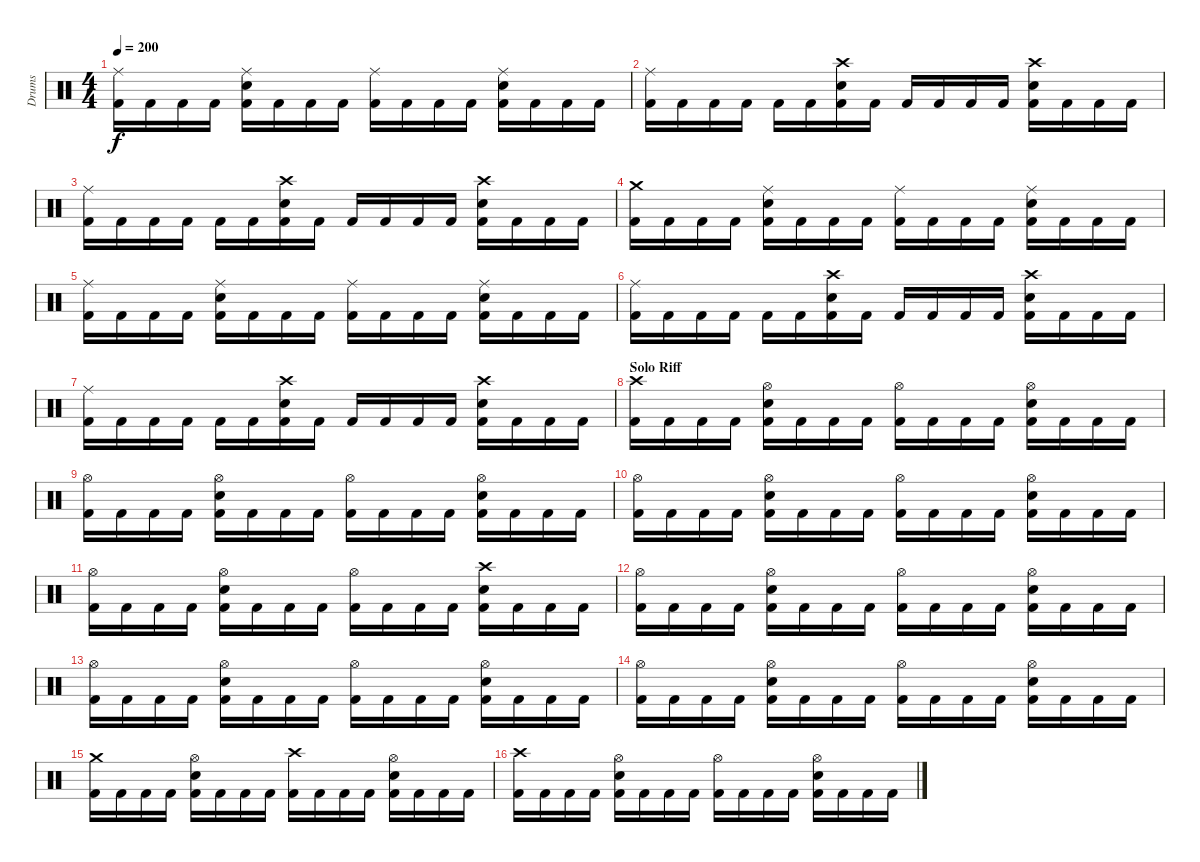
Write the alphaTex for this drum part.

\track ("Drums" "Drums") {instrument percussion}
\staff {score}
\articulation defaults
\ts (4 4)
\tempo 200
\clef neutral
\ks c
("Ride (middle)" "Kick (hit) 2").16{dy f} "Kick (hit) 2".16 "Kick (hit) 2".16 "Kick (hit) 2".16 ("Ride (middle)" "Snare (hit) 2" "Kick (hit) 2").16 "Kick (hit) 2".16 "Kick (hit) 2".16 "Kick (hit) 2".16 ("Ride (middle)" "Kick (hit) 2").16 "Kick (hit) 2".16 "Kick (hit) 2".16 "Kick (hit) 2".16 ("Ride (middle)" "Snare (hit) 2" "Kick (hit) 2").16 "Kick (hit) 2".16 "Kick (hit) 2".16 "Kick (hit) 2".16 |
("Ride (middle)" "Kick (hit) 2").16 "Kick (hit) 2".16 "Kick (hit) 2".16 "Kick (hit) 2".16 "Kick (hit) 2".16 "Kick (hit) 2".16 ("Crash high (hit)" "Snare (hit) 2" "Kick (hit) 2").16 "Kick (hit) 2".16 "Kick (hit) 2".16 "Kick (hit) 2".16 "Kick (hit) 2".16 "Kick (hit) 2".16 ("Crash high (hit)" "Snare (hit) 2" "Kick (hit) 2").16 "Kick (hit) 2".16 "Kick (hit) 2".16 "Kick (hit) 2".16 |
("Ride (middle)" "Kick (hit) 2").16 "Kick (hit) 2".16 "Kick (hit) 2".16 "Kick (hit) 2".16 "Kick (hit) 2".16 "Kick (hit) 2".16 ("Crash high (hit)" "Snare (hit) 2" "Kick (hit) 2").16 "Kick (hit) 2".16 "Kick (hit) 2".16 "Kick (hit) 2".16 "Kick (hit) 2".16 "Kick (hit) 2".16 ("Crash high (hit)" "Snare (hit) 2" "Kick (hit) 2").16 "Kick (hit) 2".16 "Kick (hit) 2".16 "Kick (hit) 2".16 |
("Crash medium (hit)" "Kick (hit) 2").16 "Kick (hit) 2".16 "Kick (hit) 2".16 "Kick (hit) 2".16 ("Ride (middle)" "Snare (hit) 2" "Kick (hit) 2").16 "Kick (hit) 2".16 "Kick (hit) 2".16 "Kick (hit) 2".16 ("Ride (middle)" "Kick (hit) 2").16 "Kick (hit) 2".16 "Kick (hit) 2".16 "Kick (hit) 2".16 ("Ride (middle)" "Snare (hit) 2" "Kick (hit) 2").16 "Kick (hit) 2".16 "Kick (hit) 2".16 "Kick (hit) 2".16 |
("Ride (middle)" "Kick (hit) 2").16 "Kick (hit) 2".16 "Kick (hit) 2".16 "Kick (hit) 2".16 ("Ride (middle)" "Snare (hit) 2" "Kick (hit) 2").16 "Kick (hit) 2".16 "Kick (hit) 2".16 "Kick (hit) 2".16 ("Ride (middle)" "Kick (hit) 2").16 "Kick (hit) 2".16 "Kick (hit) 2".16 "Kick (hit) 2".16 ("Ride (middle)" "Snare (hit) 2" "Kick (hit) 2").16 "Kick (hit) 2".16 "Kick (hit) 2".16 "Kick (hit) 2".16 |
("Ride (middle)" "Kick (hit) 2").16 "Kick (hit) 2".16 "Kick (hit) 2".16 "Kick (hit) 2".16 "Kick (hit) 2".16 "Kick (hit) 2".16 ("Crash high (hit)" "Snare (hit) 2" "Kick (hit) 2").16 "Kick (hit) 2".16 "Kick (hit) 2".16 "Kick (hit) 2".16 "Kick (hit) 2".16 "Kick (hit) 2".16 ("Crash high (hit)" "Snare (hit) 2" "Kick (hit) 2").16 "Kick (hit) 2".16 "Kick (hit) 2".16 "Kick (hit) 2".16 |
("Ride (middle)" "Kick (hit) 2").16 "Kick (hit) 2".16 "Kick (hit) 2".16 "Kick (hit) 2".16 "Kick (hit) 2".16 "Kick (hit) 2".16 ("Crash high (hit)" "Snare (hit) 2" "Kick (hit) 2").16 "Kick (hit) 2".16 "Kick (hit) 2".16 "Kick (hit) 2".16 "Kick (hit) 2".16 "Kick (hit) 2".16 ("Crash high (hit)" "Snare (hit) 2" "Kick (hit) 2").16 "Kick (hit) 2".16 "Kick (hit) 2".16 "Kick (hit) 2".16 |
\section ("" "Solo Riff")
("Crash high (hit)" "Kick (hit) 2").16 "Kick (hit) 2".16 "Kick (hit) 2".16 "Kick (hit) 2".16 ("Hi-Hat (open)" "Snare (hit) 2" "Kick (hit) 2").16 "Kick (hit) 2".16 "Kick (hit) 2".16 "Kick (hit) 2".16 ("Hi-Hat (open)" "Kick (hit) 2").16 "Kick (hit) 2".16 "Kick (hit) 2".16 "Kick (hit) 2".16 ("Hi-Hat (open)" "Snare (hit) 2" "Kick (hit) 2").16 "Kick (hit) 2".16 "Kick (hit) 2".16 "Kick (hit) 2".16 |
("Hi-Hat (open)" "Kick (hit) 2").16 "Kick (hit) 2".16 "Kick (hit) 2".16 "Kick (hit) 2".16 ("Hi-Hat (open)" "Snare (hit) 2" "Kick (hit) 2").16 "Kick (hit) 2".16 "Kick (hit) 2".16 "Kick (hit) 2".16 ("Hi-Hat (open)" "Kick (hit) 2").16 "Kick (hit) 2".16 "Kick (hit) 2".16 "Kick (hit) 2".16 ("Hi-Hat (open)" "Snare (hit) 2" "Kick (hit) 2").16 "Kick (hit) 2".16 "Kick (hit) 2".16 "Kick (hit) 2".16 |
("Hi-Hat (open)" "Kick (hit) 2").16 "Kick (hit) 2".16 "Kick (hit) 2".16 "Kick (hit) 2".16 ("Hi-Hat (open)" "Snare (hit) 2" "Kick (hit) 2").16 "Kick (hit) 2".16 "Kick (hit) 2".16 "Kick (hit) 2".16 ("Hi-Hat (open)" "Kick (hit) 2").16 "Kick (hit) 2".16 "Kick (hit) 2".16 "Kick (hit) 2".16 ("Hi-Hat (open)" "Snare (hit) 2" "Kick (hit) 2").16 "Kick (hit) 2".16 "Kick (hit) 2".16 "Kick (hit) 2".16 |
("Hi-Hat (open)" "Kick (hit) 2").16 "Kick (hit) 2".16 "Kick (hit) 2".16 "Kick (hit) 2".16 ("Hi-Hat (open)" "Snare (hit) 2" "Kick (hit) 2").16 "Kick (hit) 2".16 "Kick (hit) 2".16 "Kick (hit) 2".16 ("Hi-Hat (open)" "Kick (hit) 2").16 "Kick (hit) 2".16 "Kick (hit) 2".16 "Kick (hit) 2".16 ("Crash high (hit)" "Snare (hit) 2" "Kick (hit) 2").16 "Kick (hit) 2".16 "Kick (hit) 2".16 "Kick (hit) 2".16 |
("Hi-Hat (open)" "Kick (hit) 2").16 "Kick (hit) 2".16 "Kick (hit) 2".16 "Kick (hit) 2".16 ("Hi-Hat (open)" "Snare (hit) 2" "Kick (hit) 2").16 "Kick (hit) 2".16 "Kick (hit) 2".16 "Kick (hit) 2".16 ("Hi-Hat (open)" "Kick (hit) 2").16 "Kick (hit) 2".16 "Kick (hit) 2".16 "Kick (hit) 2".16 ("Hi-Hat (open)" "Snare (hit) 2" "Kick (hit) 2").16 "Kick (hit) 2".16 "Kick (hit) 2".16 "Kick (hit) 2".16 |
("Hi-Hat (open)" "Kick (hit) 2").16 "Kick (hit) 2".16 "Kick (hit) 2".16 "Kick (hit) 2".16 ("Hi-Hat (open)" "Snare (hit) 2" "Kick (hit) 2").16 "Kick (hit) 2".16 "Kick (hit) 2".16 "Kick (hit) 2".16 ("Hi-Hat (open)" "Kick (hit) 2").16 "Kick (hit) 2".16 "Kick (hit) 2".16 "Kick (hit) 2".16 ("Hi-Hat (open)" "Snare (hit) 2" "Kick (hit) 2").16 "Kick (hit) 2".16 "Kick (hit) 2".16 "Kick (hit) 2".16 |
("Hi-Hat (open)" "Kick (hit) 2").16 "Kick (hit) 2".16 "Kick (hit) 2".16 "Kick (hit) 2".16 ("Hi-Hat (open)" "Snare (hit) 2" "Kick (hit) 2").16 "Kick (hit) 2".16 "Kick (hit) 2".16 "Kick (hit) 2".16 ("Hi-Hat (open)" "Kick (hit) 2").16 "Kick (hit) 2".16 "Kick (hit) 2".16 "Kick (hit) 2".16 ("Hi-Hat (open)" "Snare (hit) 2" "Kick (hit) 2").16 "Kick (hit) 2".16 "Kick (hit) 2".16 "Kick (hit) 2".16 |
("Crash medium (hit)" "Kick (hit) 2").16 "Kick (hit) 2".16 "Kick (hit) 2".16 "Kick (hit) 2".16 ("Hi-Hat (open)" "Snare (hit) 2" "Kick (hit) 2").16 "Kick (hit) 2".16 "Kick (hit) 2".16 "Kick (hit) 2".16 ("Crash high (hit)" "Kick (hit) 2").16 "Kick (hit) 2".16 "Kick (hit) 2".16 "Kick (hit) 2".16 ("Hi-Hat (open)" "Snare (hit) 2" "Kick (hit) 2").16 "Kick (hit) 2".16 "Kick (hit) 2".16 "Kick (hit) 2".16 |
("Crash high (hit)" "Kick (hit) 2").16 "Kick (hit) 2".16 "Kick (hit) 2".16 "Kick (hit) 2".16 ("Hi-Hat (open)" "Snare (hit) 2" "Kick (hit) 2").16 "Kick (hit) 2".16 "Kick (hit) 2".16 "Kick (hit) 2".16 ("Hi-Hat (open)" "Kick (hit) 2").16 "Kick (hit) 2".16 "Kick (hit) 2".16 "Kick (hit) 2".16 ("Hi-Hat (open)" "Snare (hit) 2" "Kick (hit) 2").16 "Kick (hit) 2".16 "Kick (hit) 2".16 "Kick (hit) 2".16
